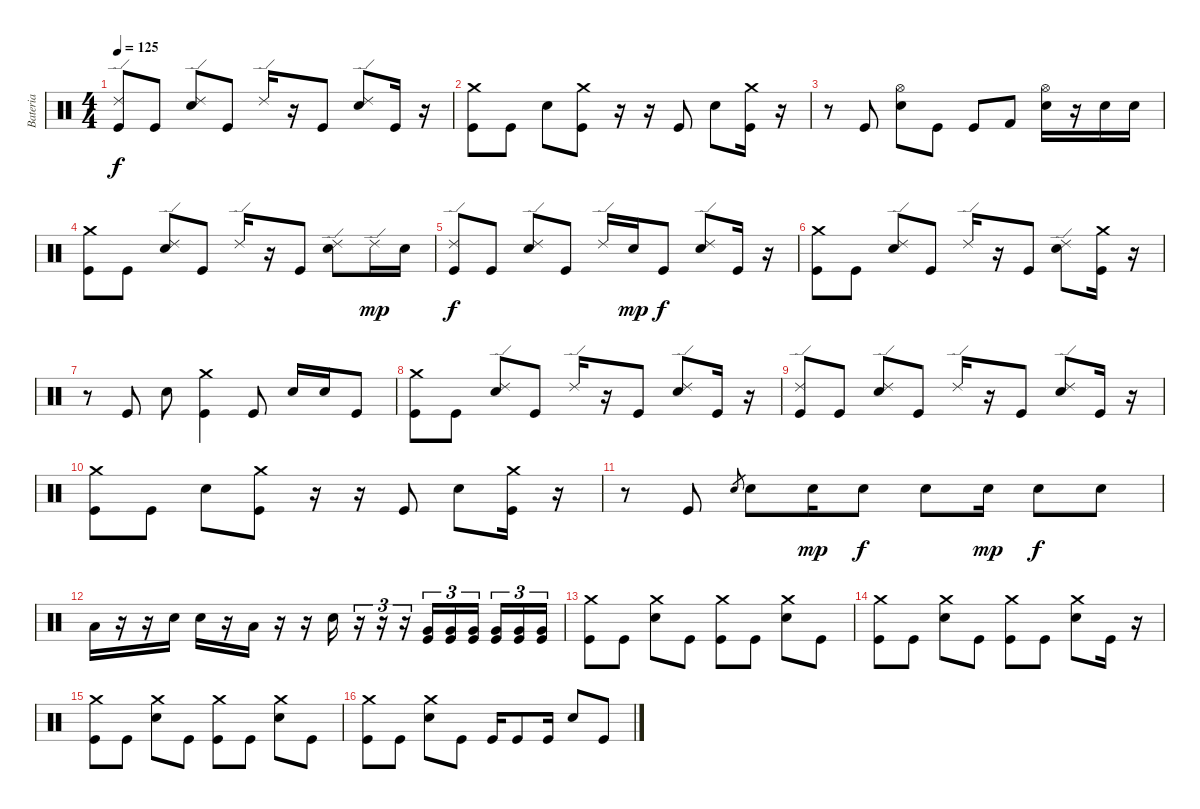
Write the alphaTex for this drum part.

\track ("Bateria" "Bateria") {instrument percussion}
\staff {score}
\articulation defaults
\ts (4 4)
\tempo 125
\clef neutral
\ks c
("Ride (edge) 2" "Kick (hit)").8{dy f} "Kick (hit)".8 ("Ride (edge) 2" "Electric Snare (hit)").8 "Kick (hit)".8 "Ride (edge) 2".16 r.16 "Kick (hit)".8 ("Ride (edge) 2" "Electric Snare (hit)").8 "Kick (hit)".16 r.16 |
("Crash medium (hit)" "Kick (hit)").8 "Kick (hit)".8 "Electric Snare (hit)".8 ("Crash medium (hit)" "Kick (hit)").8 r.16 r.16 "Kick (hit)".8 "Electric Snare (hit)".8 ("Crash medium (hit)" "Kick (hit)").16 r.16 |
r.8 "Kick (hit)".8 ("Hi-Hat (open)" "Electric Snare (hit)").8 "Kick (hit)".8 "Kick (hit)".8 "Kick (hit) 2".8 ("Hi-Hat (open)" "Electric Snare (hit)").16 r.16 "Electric Snare (hit)".16 "Electric Snare (hit)".16 |
("Crash medium (hit)" "Kick (hit)").8 "Kick (hit)".8 ("Ride (edge) 2" "Electric Snare (hit)").8 "Kick (hit)".8 "Ride (edge) 2".16 r.16 "Kick (hit)".8 ("Ride (edge) 2" "Electric Snare (hit)").8 "Ride (edge) 2".16{dy mp} "Electric Snare (hit)".16 |
("Ride (edge) 2" "Kick (hit)").8{dy f} "Kick (hit)".8 ("Ride (edge) 2" "Electric Snare (hit)").8 "Kick (hit)".8 "Ride (edge) 2".16 "Electric Snare (hit)".16{dy mp} "Kick (hit)".8{dy f} ("Ride (edge) 2" "Electric Snare (hit)").8 "Kick (hit)".16 r.16 |
("Crash medium (hit)" "Kick (hit)").8 "Kick (hit)".8 ("Ride (edge) 2" "Electric Snare (hit)").8 "Kick (hit)".8 "Ride (edge) 2".16 r.16 "Kick (hit)".8 ("Ride (edge) 2" "Electric Snare (hit)").8 ("Crash medium (hit)" "Kick (hit)").16 r.16 |
r.8 "Kick (hit)".8 "Electric Snare (hit)".8 ("Crash medium (hit)" "Kick (hit)").4 "Kick (hit)".8 "Electric Snare (hit)".16 "Electric Snare (hit)".16 "Kick (hit)".8 |
("Crash medium (hit)" "Kick (hit)").8 "Kick (hit)".8 ("Ride (edge) 2" "Electric Snare (hit)").8 "Kick (hit)".8 "Ride (edge) 2".16 r.16 "Kick (hit)".8 ("Ride (edge) 2" "Electric Snare (hit)").8 "Kick (hit)".16 r.16 |
("Ride (edge) 2" "Kick (hit)").8 "Kick (hit)".8 ("Ride (edge) 2" "Electric Snare (hit)").8 "Kick (hit)".8 "Ride (edge) 2".16 r.16 "Kick (hit)".8 ("Ride (edge) 2" "Electric Snare (hit)").8 "Kick (hit)".16 r.16 |
("Crash medium (hit)" "Kick (hit)").8 "Kick (hit)".8 "Electric Snare (hit)".8 ("Crash medium (hit)" "Kick (hit)").8 r.16 r.16 "Kick (hit)".8 "Electric Snare (hit)".8 ("Crash medium (hit)" "Kick (hit)").16 r.16 |
r.8 "Kick (hit)".8 "Electric Snare (hit)".8{gr} "Electric Snare (hit)".8 "Electric Snare (hit)".16{dy mp} "Electric Snare (hit)".8{dy f} "Electric Snare (hit)".8 "Electric Snare (hit)".16{dy mp} "Electric Snare (hit)".8{dy f} "Electric Snare (hit)".8 |
"Low Tom (hit)".16 r.16 r.16 "Electric Snare (hit)".16 "Electric Snare (hit)".16 r.16 "Low Tom (hit)".16 r.16 r.16 "Electric Snare (hit)".16 r.16{tu (3 2)} r.16{tu (3 2)} r.16{tu (3 2)} ("Very Low Tom (hit)" "Kick (hit)").16{tu (3 2)} ("Very Low Tom (hit)" "Kick (hit)").16{tu (3 2)} ("Very Low Tom (hit)" "Kick (hit)").16{tu (3 2) beam splitsecondary} ("Very Low Tom (hit)" "Kick (hit)").16{tu (3 2)} ("Very Low Tom (hit)" "Kick (hit)").16{tu (3 2)} ("Very Low Tom (hit)" "Kick (hit)").16{tu (3 2)} |
("Crash medium (hit)" "Kick (hit)").8 "Kick (hit)".8 ("Crash medium (hit)" "Electric Snare (hit)").8 "Kick (hit)".8 ("Crash medium (hit)" "Kick (hit)").8 "Kick (hit)".8 ("Crash medium (hit)" "Electric Snare (hit)").8 "Kick (hit)".8 |
("Crash medium (hit)" "Kick (hit)").8 "Kick (hit)".8 ("Crash medium (hit)" "Electric Snare (hit)").8 "Kick (hit)".8 ("Crash medium (hit)" "Kick (hit)").8 "Kick (hit)".8 ("Crash medium (hit)" "Electric Snare (hit)").8 "Kick (hit)".16 r.16 |
("Crash medium (hit)" "Kick (hit)").8 "Kick (hit)".8 ("Crash medium (hit)" "Electric Snare (hit)").8 "Kick (hit)".8 ("Crash medium (hit)" "Kick (hit)").8 "Kick (hit)".8 ("Crash medium (hit)" "Electric Snare (hit)").8 "Kick (hit)".8 |
("Crash medium (hit)" "Kick (hit)").8 "Kick (hit)".8 ("Crash medium (hit)" "Electric Snare (hit)").8 "Kick (hit)".8 "Kick (hit)".16 "Kick (hit)".8 "Kick (hit)".16 "Electric Snare (hit)".8 "Kick (hit)".8
